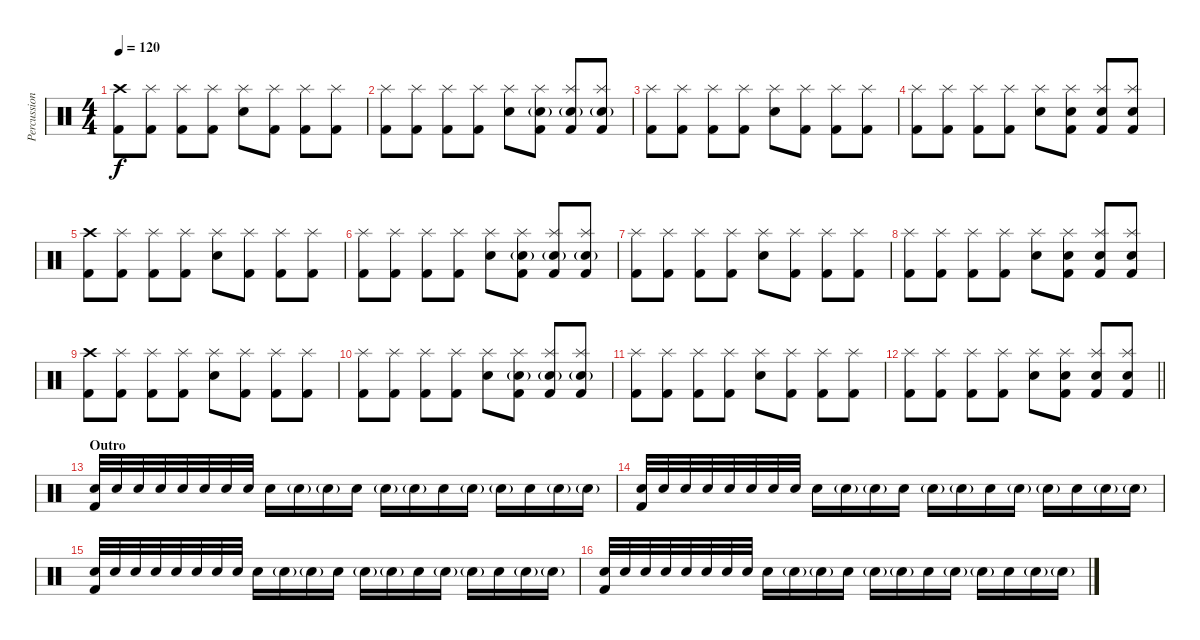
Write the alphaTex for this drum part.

\track ("Percussion" "Percussion") {instrument percussion}
\staff {score}
\articulation defaults
\ts (4 4)
\tempo 120
\clef neutral
\ks c
("Crash high (hit)" "Kick (hit) 2").8{dy f} ("Splash (hit)" "Kick (hit) 2").8 ("Splash (hit)" "Kick (hit) 2").8 ("Splash (hit)" "Kick (hit) 2").8 ("Splash (hit)" "Electric Snare (hit)").8 ("Splash (hit)" "Kick (hit) 2").8 ("Splash (hit)" "Kick (hit) 2").8 ("Splash (hit)" "Kick (hit) 2").8 |
("Splash (hit)" "Kick (hit) 2").8 ("Splash (hit)" "Kick (hit) 2").8 ("Splash (hit)" "Kick (hit) 2").8 ("Splash (hit)" "Kick (hit) 2").8 ("Splash (hit)" "Electric Snare (hit)").8 ("Splash (hit)" "Electric Snare (hit)"{g} "Kick (hit) 2").8 ("Splash (hit)" "Electric Snare (hit)"{g} "Kick (hit) 2").8 ("Splash (hit)" "Electric Snare (hit)"{g} "Kick (hit) 2").8 |
("Splash (hit)" "Kick (hit) 2").8 ("Splash (hit)" "Kick (hit) 2").8 ("Splash (hit)" "Kick (hit) 2").8 ("Splash (hit)" "Kick (hit) 2").8 ("Splash (hit)" "Electric Snare (hit)").8 ("Splash (hit)" "Kick (hit) 2").8 ("Splash (hit)" "Kick (hit) 2").8 ("Splash (hit)" "Kick (hit) 2").8 |
("Splash (hit)" "Kick (hit) 2").8 ("Splash (hit)" "Kick (hit) 2").8 ("Splash (hit)" "Kick (hit) 2").8 ("Splash (hit)" "Kick (hit) 2").8 ("Splash (hit)" "Electric Snare (hit)").8 ("Splash (hit)" "Electric Snare (hit)" "Kick (hit) 2").8 ("Splash (hit)" "Electric Snare (hit)" "Kick (hit) 2").8 ("Splash (hit)" "Electric Snare (hit)" "Kick (hit) 2").8 |
("Crash high (hit)" "Kick (hit) 2").8 ("Splash (hit)" "Kick (hit) 2").8 ("Splash (hit)" "Kick (hit) 2").8 ("Splash (hit)" "Kick (hit) 2").8 ("Splash (hit)" "Electric Snare (hit)").8 ("Splash (hit)" "Kick (hit) 2").8 ("Splash (hit)" "Kick (hit) 2").8 ("Splash (hit)" "Kick (hit) 2").8 |
("Splash (hit)" "Kick (hit) 2").8 ("Splash (hit)" "Kick (hit) 2").8 ("Splash (hit)" "Kick (hit) 2").8 ("Splash (hit)" "Kick (hit) 2").8 ("Splash (hit)" "Electric Snare (hit)").8 ("Splash (hit)" "Electric Snare (hit)"{g} "Kick (hit) 2").8 ("Splash (hit)" "Electric Snare (hit)"{g} "Kick (hit) 2").8 ("Splash (hit)" "Electric Snare (hit)"{g} "Kick (hit) 2").8 |
("Splash (hit)" "Kick (hit) 2").8 ("Splash (hit)" "Kick (hit) 2").8 ("Splash (hit)" "Kick (hit) 2").8 ("Splash (hit)" "Kick (hit) 2").8 ("Splash (hit)" "Electric Snare (hit)").8 ("Splash (hit)" "Kick (hit) 2").8 ("Splash (hit)" "Kick (hit) 2").8 ("Splash (hit)" "Kick (hit) 2").8 |
("Splash (hit)" "Kick (hit) 2").8 ("Splash (hit)" "Kick (hit) 2").8 ("Splash (hit)" "Kick (hit) 2").8 ("Splash (hit)" "Kick (hit) 2").8 ("Splash (hit)" "Electric Snare (hit)").8 ("Splash (hit)" "Electric Snare (hit)" "Kick (hit) 2").8 ("Splash (hit)" "Electric Snare (hit)" "Kick (hit) 2").8 ("Splash (hit)" "Electric Snare (hit)" "Kick (hit) 2").8 |
("Crash high (hit)" "Kick (hit) 2").8 ("Splash (hit)" "Kick (hit) 2").8 ("Splash (hit)" "Kick (hit) 2").8 ("Splash (hit)" "Kick (hit) 2").8 ("Splash (hit)" "Electric Snare (hit)").8 ("Splash (hit)" "Kick (hit) 2").8 ("Splash (hit)" "Kick (hit) 2").8 ("Splash (hit)" "Kick (hit) 2").8 |
("Splash (hit)" "Kick (hit) 2").8 ("Splash (hit)" "Kick (hit) 2").8 ("Splash (hit)" "Kick (hit) 2").8 ("Splash (hit)" "Kick (hit) 2").8 ("Splash (hit)" "Electric Snare (hit)").8 ("Splash (hit)" "Electric Snare (hit)"{g} "Kick (hit) 2").8 ("Splash (hit)" "Electric Snare (hit)"{g} "Kick (hit) 2").8 ("Splash (hit)" "Electric Snare (hit)"{g} "Kick (hit) 2").8 |
("Splash (hit)" "Kick (hit) 2").8 ("Splash (hit)" "Kick (hit) 2").8 ("Splash (hit)" "Kick (hit) 2").8 ("Splash (hit)" "Kick (hit) 2").8 ("Splash (hit)" "Electric Snare (hit)").8 ("Splash (hit)" "Kick (hit) 2").8 ("Splash (hit)" "Kick (hit) 2").8 ("Splash (hit)" "Kick (hit) 2").8 |
\barLineRight lightlight
("Splash (hit)" "Kick (hit) 2").8 ("Splash (hit)" "Kick (hit) 2").8 ("Splash (hit)" "Kick (hit) 2").8 ("Splash (hit)" "Kick (hit) 2").8 ("Splash (hit)" "Electric Snare (hit)").8 ("Splash (hit)" "Electric Snare (hit)" "Kick (hit) 2").8 ("Splash (hit)" "Electric Snare (hit)" "Kick (hit) 2").8 ("Splash (hit)" "Electric Snare (hit)" "Kick (hit) 2").8 |
\section ("" "Outro")
("Electric Snare (hit)" "Kick (hit) 2").32 "Electric Snare (hit)".32 "Electric Snare (hit)".32 "Electric Snare (hit)".32 "Electric Snare (hit)".32 "Electric Snare (hit)".32 "Electric Snare (hit)".32 "Electric Snare (hit)".32 "Electric Snare (hit)".16 "Electric Snare (hit)"{g}.16 "Electric Snare (hit)"{g}.16 "Electric Snare (hit)".16 "Electric Snare (hit)"{g}.16 "Electric Snare (hit)"{g}.16 "Electric Snare (hit)".16 "Electric Snare (hit)"{g}.16 "Electric Snare (hit)"{g}.16 "Electric Snare (hit)".16 "Electric Snare (hit)"{g}.16 "Electric Snare (hit)"{g}.16 |
("Electric Snare (hit)" "Kick (hit) 2").32 "Electric Snare (hit)".32 "Electric Snare (hit)".32 "Electric Snare (hit)".32 "Electric Snare (hit)".32 "Electric Snare (hit)".32 "Electric Snare (hit)".32 "Electric Snare (hit)".32 "Electric Snare (hit)".16 "Electric Snare (hit)"{g}.16 "Electric Snare (hit)"{g}.16 "Electric Snare (hit)".16 "Electric Snare (hit)"{g}.16 "Electric Snare (hit)"{g}.16 "Electric Snare (hit)".16 "Electric Snare (hit)"{g}.16 "Electric Snare (hit)"{g}.16 "Electric Snare (hit)".16 "Electric Snare (hit)"{g}.16 "Electric Snare (hit)"{g}.16 |
("Electric Snare (hit)" "Kick (hit) 2").32 "Electric Snare (hit)".32 "Electric Snare (hit)".32 "Electric Snare (hit)".32 "Electric Snare (hit)".32 "Electric Snare (hit)".32 "Electric Snare (hit)".32 "Electric Snare (hit)".32 "Electric Snare (hit)".16 "Electric Snare (hit)"{g}.16 "Electric Snare (hit)"{g}.16 "Electric Snare (hit)".16 "Electric Snare (hit)"{g}.16 "Electric Snare (hit)"{g}.16 "Electric Snare (hit)".16 "Electric Snare (hit)"{g}.16 "Electric Snare (hit)"{g}.16 "Electric Snare (hit)".16 "Electric Snare (hit)"{g}.16 "Electric Snare (hit)"{g}.16 |
("Electric Snare (hit)" "Kick (hit) 2").32 "Electric Snare (hit)".32 "Electric Snare (hit)".32 "Electric Snare (hit)".32 "Electric Snare (hit)".32 "Electric Snare (hit)".32 "Electric Snare (hit)".32 "Electric Snare (hit)".32 "Electric Snare (hit)".16 "Electric Snare (hit)"{g}.16 "Electric Snare (hit)"{g}.16 "Electric Snare (hit)".16 "Electric Snare (hit)"{g}.16 "Electric Snare (hit)"{g}.16 "Electric Snare (hit)".16 "Electric Snare (hit)"{g}.16 "Electric Snare (hit)"{g}.16 "Electric Snare (hit)".16 "Electric Snare (hit)"{g}.16 "Electric Snare (hit)"{g}.16
